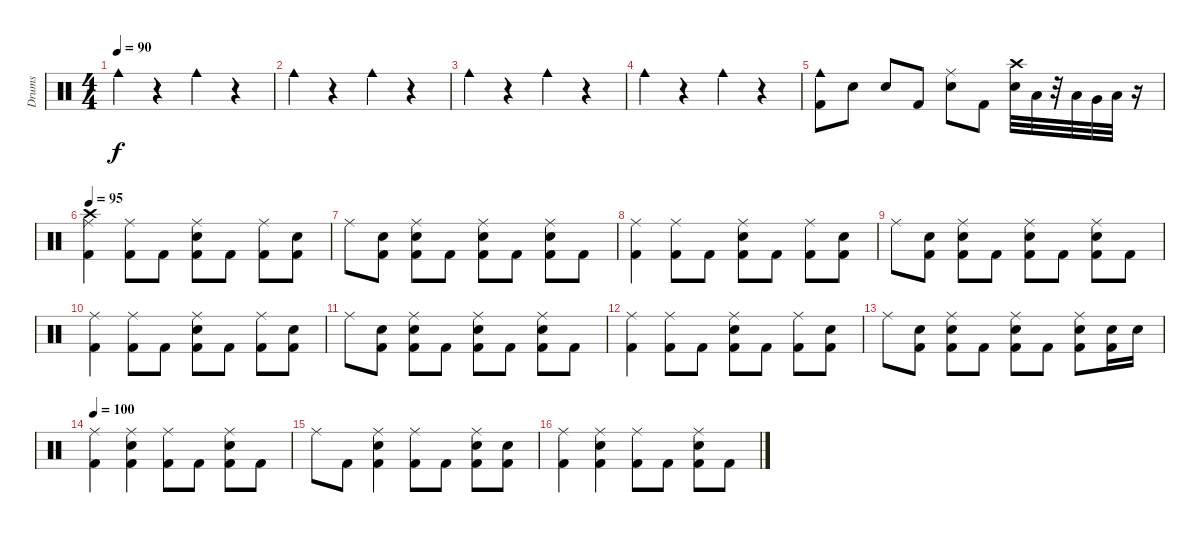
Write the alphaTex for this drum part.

\track ("Drums" "Drums") {instrument percussion}
\staff {score}
\articulation defaults
\ts (4 4)
\tempo 90
\clef neutral
\ks c "Cowbell medium (hit)".4{dy f}
r.4 "Cowbell medium (hit)".4 r.4 |
"Cowbell medium (hit)".4 r.4 "Cowbell medium (hit)".4 r.4 |
"Cowbell medium (hit)".4 r.4 "Cowbell medium (hit)".4 r.4 |
"Cowbell medium (hit)".4 r.4 "Cowbell medium (hit)".4 r.4 |
("Kick (hit) 2" "Cowbell medium (hit)").8 "Electric Snare (hit)".8 "Electric Snare (hit)".8 "Kick (hit) 2".8 ("Ride (middle)" "Electric Snare (hit)").8 "Kick (hit) 2".8 ("Crash high (hit)" "Electric Snare (hit)").32 "Low Tom (hit)".32 r.32 "Low Tom (hit)".32 "Very Low Tom (hit)".32 "Low Floor Tom (hit)".32 r.16 |
\tempo 95
("Crash high (hit)" "Ride (middle)" "Kick (hit) 2").4 ("Ride (middle)" "Kick (hit) 2").8 "Kick (hit) 2".8 ("Ride (middle)" "Electric Snare (hit)" "Kick (hit) 2").8 "Kick (hit) 2".8 ("Ride (middle)" "Kick (hit) 2").8 ("Electric Snare (hit)" "Kick (hit) 2").8 |
"Ride (middle)".8 ("Kick (hit) 2" "Electric Snare (hit)").8 ("Ride (middle)" "Kick (hit) 2" "Electric Snare (hit)").8 "Kick (hit) 2".8 ("Ride (middle)" "Kick (hit) 2" "Electric Snare (hit)").8 "Kick (hit) 2".8 ("Ride (middle)" "Kick (hit) 2" "Electric Snare (hit)").8 "Kick (hit) 2".8 |
("Ride (middle)" "Kick (hit) 2").4 ("Ride (middle)" "Kick (hit) 2").8 "Kick (hit) 2".8 ("Ride (middle)" "Electric Snare (hit)" "Kick (hit) 2").8 "Kick (hit) 2".8 ("Ride (middle)" "Kick (hit) 2").8 ("Electric Snare (hit)" "Kick (hit) 2").8 |
"Ride (middle)".8 ("Kick (hit) 2" "Electric Snare (hit)").8 ("Ride (middle)" "Kick (hit) 2" "Electric Snare (hit)").8 "Kick (hit) 2".8 ("Ride (middle)" "Kick (hit) 2" "Electric Snare (hit)").8 "Kick (hit) 2".8 ("Ride (middle)" "Kick (hit) 2" "Electric Snare (hit)").8 "Kick (hit) 2".8 |
("Ride (middle)" "Kick (hit) 2").4 ("Ride (middle)" "Kick (hit) 2").8 "Kick (hit) 2".8 ("Ride (middle)" "Electric Snare (hit)" "Kick (hit) 2").8 "Kick (hit) 2".8 ("Ride (middle)" "Kick (hit) 2").8 ("Electric Snare (hit)" "Kick (hit) 2").8 |
"Ride (middle)".8 ("Kick (hit) 2" "Electric Snare (hit)").8 ("Ride (middle)" "Kick (hit) 2" "Electric Snare (hit)").8 "Kick (hit) 2".8 ("Ride (middle)" "Kick (hit) 2" "Electric Snare (hit)").8 "Kick (hit) 2".8 ("Ride (middle)" "Kick (hit) 2" "Electric Snare (hit)").8 "Kick (hit) 2".8 |
("Ride (middle)" "Kick (hit) 2").4 ("Ride (middle)" "Kick (hit) 2").8 "Kick (hit) 2".8 ("Ride (middle)" "Electric Snare (hit)" "Kick (hit) 2").8 "Kick (hit) 2".8 ("Ride (middle)" "Kick (hit) 2").8 ("Electric Snare (hit)" "Kick (hit) 2").8 |
"Ride (middle)".8 ("Kick (hit) 2" "Electric Snare (hit)").8 ("Ride (middle)" "Kick (hit) 2" "Electric Snare (hit)").8 "Kick (hit) 2".8 ("Ride (middle)" "Kick (hit) 2" "Electric Snare (hit)").8 "Kick (hit) 2".8 ("Ride (middle)" "Kick (hit) 2" "Electric Snare (hit)").8 ("Electric Snare (hit)" "Kick (hit) 2").16 "Electric Snare (hit)".16 |
\tempo 100
("Ride (middle)" "Kick (hit) 2").4 ("Ride (middle)" "Kick (hit) 2" "Electric Snare (hit)").4 ("Ride (middle)" "Kick (hit) 2").8 "Kick (hit) 2".8 ("Ride (middle)" "Kick (hit) 2" "Electric Snare (hit)").8 "Kick (hit) 2".8 |
"Ride (middle)".8 "Kick (hit) 2".8 ("Ride (middle)" "Electric Snare (hit)" "Kick (hit) 2").4 ("Ride (middle)" "Kick (hit) 2").8 "Kick (hit) 2".8 ("Ride (middle)" "Electric Snare (hit)" "Kick (hit) 2").8 ("Electric Snare (hit)" "Kick (hit) 2").8 |
("Ride (middle)" "Kick (hit) 2").4 ("Ride (middle)" "Kick (hit) 2" "Electric Snare (hit)").4 ("Ride (middle)" "Kick (hit) 2").8 "Kick (hit) 2".8 ("Ride (middle)" "Kick (hit) 2" "Electric Snare (hit)").8 "Kick (hit) 2".8
